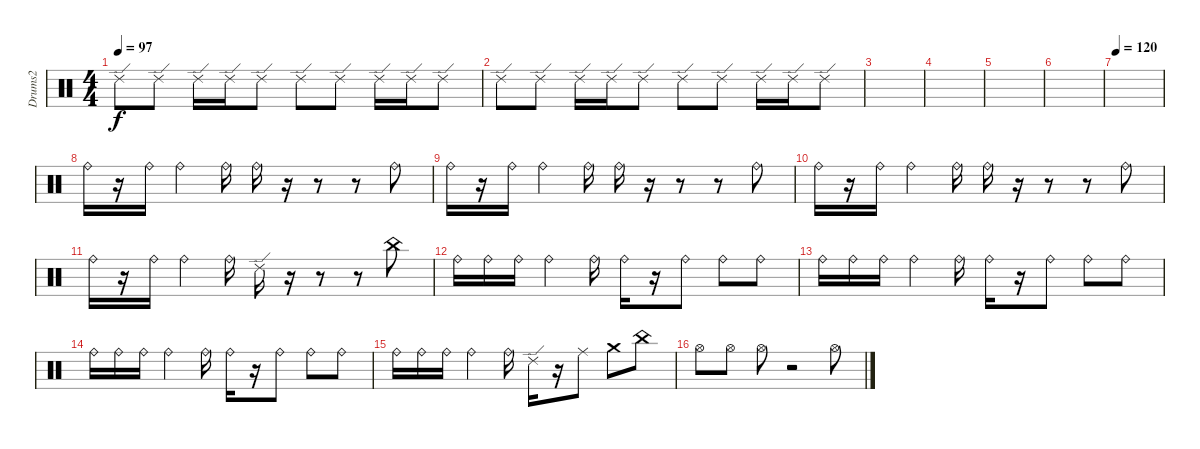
\track ("Drums2" "Drums2") {instrument percussion}
\staff {score}
\articulation defaults
\ts (4 4)
\tempo 97
\clef neutral
\ks c "Ride (edge) 2".8{dy f} "Ride (edge) 2".8 "Ride (edge) 2".16 "Ride (edge) 2".16 "Ride (edge) 2".8 "Ride (edge) 2".8 "Ride (edge) 2".8 "Ride (edge) 2".16 "Ride (edge) 2".16 "Ride (edge) 2".8
|
"Ride (edge) 2".8 "Ride (edge) 2".8 "Ride (edge) 2".16 "Ride (edge) 2".16 "Ride (edge) 2".8 "Ride (edge) 2".8 "Ride (edge) 2".8 "Ride (edge) 2".16 "Ride (edge) 2".16 "Ride (edge) 2".8 |
|
|
|
|
\tempo 120
|
"Ride (bell)".16 r.16 "Ride (bell)".16 "Ride (bell)".4 "Ride (bell)".16 "Ride (bell)".16 r.16 r.8 r.8 "Ride (bell)".8 |
"Ride (bell)".16 r.16 "Ride (bell)".16 "Ride (bell)".4 "Ride (bell)".16 "Ride (bell)".16 r.16 r.8 r.8 "Ride (bell)".8 |
"Ride (bell)".16 r.16 "Ride (bell)".16 "Ride (bell)".4 "Ride (bell)".16 "Ride (bell)".16 r.16 r.8 r.8 "Ride (bell)".8 |
"Ride (bell)".16 r.16 "Ride (bell)".16 "Ride (bell)".4 "Ride (bell)".16 "Ride (edge) 2".16 r.16 r.8 r.8 "China (hit)".8 |
"Ride (bell)".16 "Ride (bell)".16 "Ride (bell)".16 "Ride (bell)".4 "Ride (bell)".16 "Ride (bell)".16 r.16 "Ride (bell)".8 "Ride (bell)".8 "Ride (bell)".8 |
"Ride (bell)".16 "Ride (bell)".16 "Ride (bell)".16 "Ride (bell)".4 "Ride (bell)".16 "Ride (bell)".16 r.16 "Ride (bell)".8 "Ride (bell)".8 "Ride (bell)".8 |
"Ride (bell)".16 "Ride (bell)".16 "Ride (bell)".16 "Ride (bell)".4 "Ride (bell)".16 "Ride (bell)".16 r.16 "Ride (bell)".8 "Ride (bell)".8 "Ride (bell)".8 |
"Ride (bell)".16 "Ride (bell)".16 "Ride (bell)".16 "Ride (bell)".4 "Ride (bell)".16 "Ride (edge) 2".16 r.16 "Ride (middle)".8 "Crash medium (hit)".8 "China (hit)".8 |
"Hi-Hat (open)".8 "Hi-Hat (open)".8 "Hi-Hat (open)".8 r.2 "Hi-Hat (open)".8
